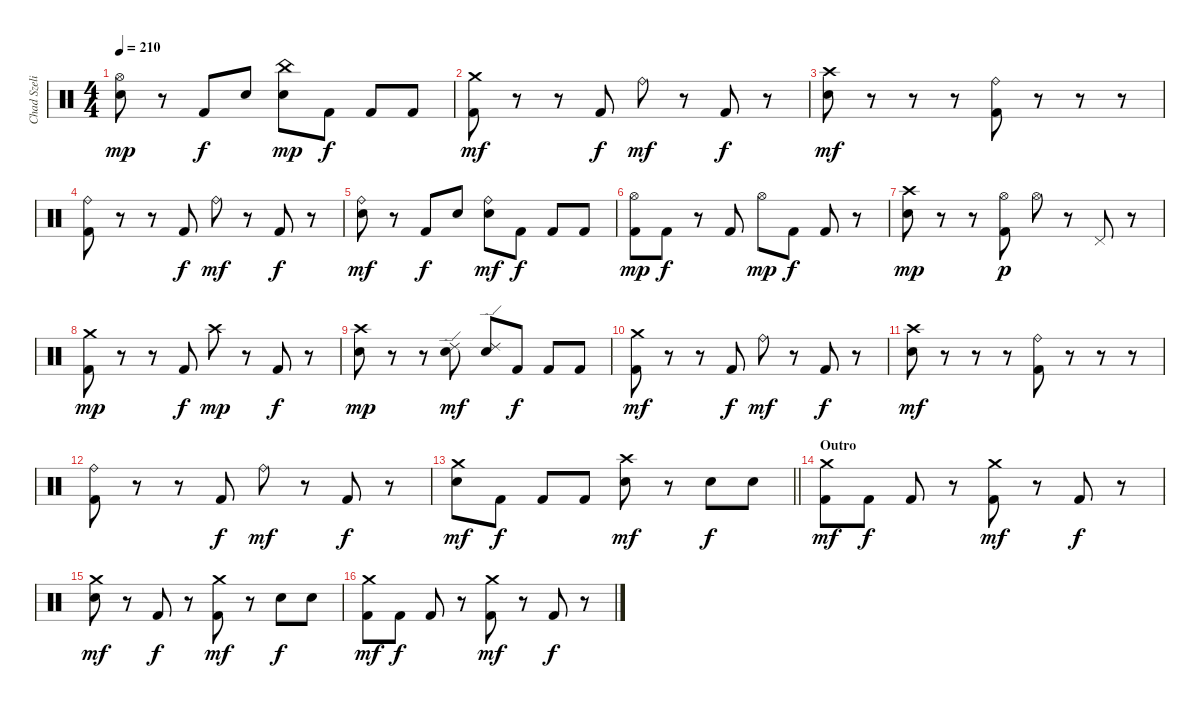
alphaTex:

\track ("Chad Szeliga" "Chad Szeli") {instrument percussion}
\staff {score}
\articulation defaults
\ts (4 4)
\tempo 210
\clef neutral
\ks c
("Snare (hit) 2" "Hi-Hat (open)").8{dy mp} r.8 "Kick (hit) 2".8{dy f} "Snare (hit) 2".8 ("Snare (hit) 2" "China (hit)").8{dy mp} "Kick (hit) 2".8{dy f} "Kick (hit) 2".8 "Kick (hit) 2".8 |
("Kick (hit) 2" "Crash medium (hit)").8{dy mf} r.8 r.8 "Kick (hit) 2".8{dy f} "Ride (bell)".8{dy mf} r.8 "Kick (hit) 2".8{dy f} r.8 |
("Snare (hit) 2" "Crash high (hit)").8{dy mf} r.8 r.8 r.8 ("Kick (hit) 2" "Ride (bell)").8 r.8 r.8 r.8 |
("Kick (hit) 2" "Ride (bell)").8 r.8 r.8 "Kick (hit) 2".8{dy f} "Ride (bell)".8{dy mf} r.8 "Kick (hit) 2".8{dy f} r.8 |
("Snare (hit) 2" "Ride (bell)").8{dy mf} r.8 "Kick (hit) 2".8{dy f} "Snare (hit) 2".8 ("Snare (hit) 2" "Ride (bell)").8{dy mf} "Kick (hit) 2".8{dy f} "Kick (hit) 2".8 "Kick (hit) 2".8 |
("Kick (hit) 2" "Hi-Hat (open)").8{dy mp} "Kick (hit) 2".8{dy f} r.8 "Kick (hit) 2".8 "Hi-Hat (open)".8{dy mp} "Kick (hit) 2".8{dy f} "Kick (hit) 2".8 r.8 |
("Snare (hit) 2" "Crash high (hit)").8{dy mp} r.8 r.8 ("Kick (hit) 2" "Hi-Hat (open)").8{dy p} "Hi-Hat (open)".8 r.8 "Pedal Hi-Hat (hit)".8 r.8 |
("Kick (hit) 2" "Crash medium (hit)").8{dy mp} r.8 r.8 "Kick (hit) 2".8{dy f} "Crash high (hit)".8{dy mp} r.8 "Kick (hit) 2".8{dy f} r.8 |
("Snare (hit) 2" "Crash high (hit)").8{dy mp} r.8 r.8 ("Snare (hit) 2" "Ride (edge) 2").8{dy mf} ("Snare (hit) 2" "Ride (edge) 2").8 "Kick (hit) 2".8{dy f} "Kick (hit) 2".8 "Kick (hit) 2".8 |
("Kick (hit) 2" "Crash medium (hit)").8{dy mf} r.8 r.8 "Kick (hit) 2".8{dy f} "Ride (bell)".8{dy mf} r.8 "Kick (hit) 2".8{dy f} r.8 |
("Snare (hit) 2" "Crash high (hit)").8{dy mf} r.8 r.8 r.8 ("Kick (hit) 2" "Ride (bell)").8 r.8 r.8 r.8 |
("Kick (hit) 2" "Ride (bell)").8 r.8 r.8 "Kick (hit) 2".8{dy f} "Ride (bell)".8{dy mf} r.8 "Kick (hit) 2".8{dy f} r.8 |
\barLineRight lightlight
("Snare (hit) 2" "Crash medium (hit)").8{dy mf} "Kick (hit) 2".8{dy f} "Kick (hit) 2".8 "Kick (hit) 2".8 ("Snare (hit) 2" "Crash high (hit)").8{dy mf} r.8 "Snare (hit) 2".8{dy f} "Snare (hit) 2".8 |
\section ("" "Outro")
("Kick (hit) 2" "Crash medium (hit)").8{dy mf} "Kick (hit) 2".8{dy f} "Kick (hit) 2".8 r.8 ("Kick (hit) 2" "Crash medium (hit)").8{dy mf} r.8 "Kick (hit) 2".8{dy f} r.8 |
("Snare (hit) 2" "Crash medium (hit)").8{dy mf} r.8 "Kick (hit) 2".8{dy f} r.8 ("Kick (hit) 2" "Crash medium (hit)").8{dy mf} r.8 "Snare (hit) 2".8{dy f} "Snare (hit) 2".8 |
("Kick (hit) 2" "Crash medium (hit)").8{dy mf} "Kick (hit) 2".8{dy f} "Kick (hit) 2".8 r.8 ("Kick (hit) 2" "Crash medium (hit)").8{dy mf} r.8 "Kick (hit) 2".8{dy f} r.8
